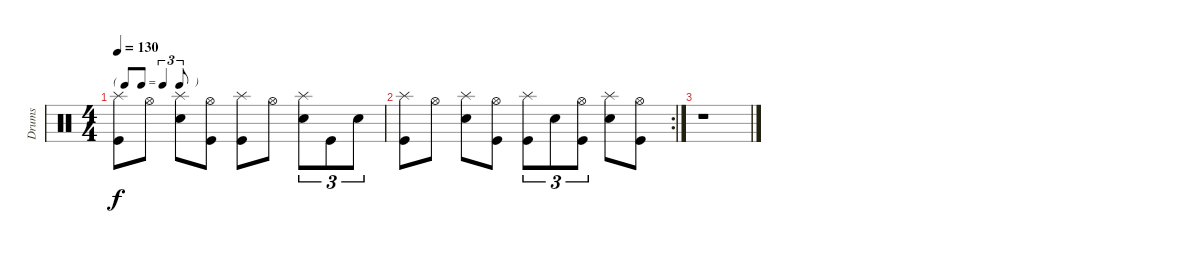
\track ("Drums" "Drums") {instrument percussion}
\staff {score}
\articulation defaults
\ts (4 4)
\tf triplet8th
\tempo 130
\clef neutral
\ks c
("Splash (hit)" "Kick (hit)").8{dy f} "Hi-Hat (open)".8 ("Splash (hit)" "Electric Snare (hit)").8 ("Hi-Hat (open)" "Kick (hit)").8 ("Splash (hit)" "Kick (hit)").8 "Hi-Hat (open)".8 ("Splash (hit)" "Electric Snare (hit)").8{tu (3 2)} "Kick (hit)".8{tu (3 2)} "Electric Snare (hit)".8{tu (3 2)} |
\rc 2
("Splash (hit)" "Kick (hit)").8 "Hi-Hat (open)".8 ("Splash (hit)" "Electric Snare (hit)").8 ("Hi-Hat (open)" "Kick (hit)").8 ("Splash (hit)" "Kick (hit)").8{tu (3 2)} "Electric Snare (hit)".8{tu (3 2)} ("Hi-Hat (open)" "Kick (hit)").8{tu (3 2)} ("Splash (hit)" "Electric Snare (hit)").8 ("Hi-Hat (open)" "Kick (hit)").8 |
r.1
